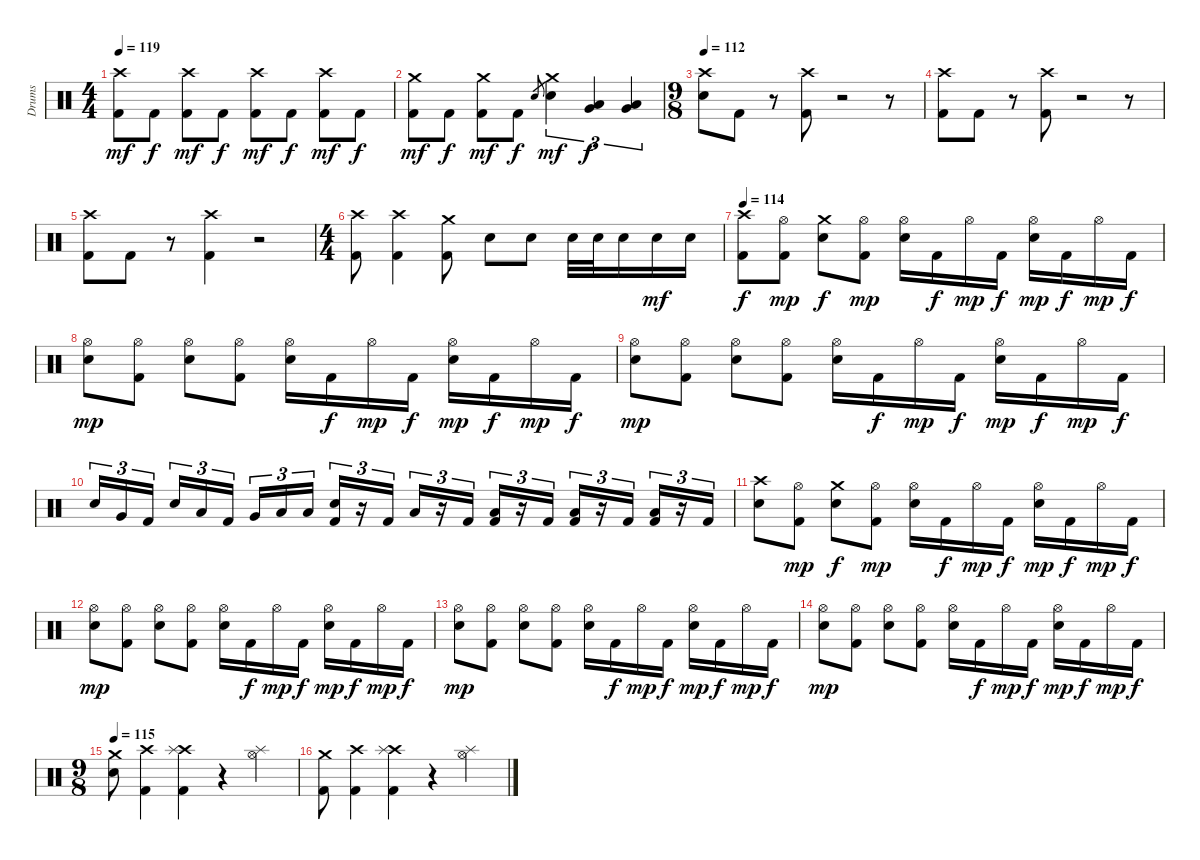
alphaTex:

\track ("Drums" "Drums") {instrument percussion}
\staff {score}
\articulation defaults
\ts (4 4)
\tempo 119
\clef neutral
\ks c
("Crash high (hit)" "Kick (hit) 2").8{dy mf} "Kick (hit) 2".8{dy f} ("Crash high (hit)" "Kick (hit) 2").8{dy mf} "Kick (hit) 2".8{dy f} ("Crash high (hit)" "Kick (hit) 2").8{dy mf} "Kick (hit) 2".8{dy f} ("Crash high (hit)" "Kick (hit) 2").8{dy mf} "Kick (hit) 2".8{dy f} |
("Crash medium (hit)" "Kick (hit) 2").8{dy mf} "Kick (hit) 2".8{dy f} ("Crash medium (hit)" "Kick (hit) 2").8{dy mf} "Kick (hit) 2".8{dy f} "Electric Snare (hit)".8{gr} ("Crash medium (hit)" "Electric Snare (hit)").4{tu (3 2) dy mf} ("Very Low Tom (hit)" "Low Tom (hit)").4{tu (3 2) dy f} ("Low Floor Tom (hit)" "Very Low Tom (hit)").4{tu (3 2)} |
\ts (9 8)
\tempo 112
("Crash high (hit)" "Electric Snare (hit)").8{volume 16} "Kick (hit) 2".8 r.8 ("Crash high (hit)" "Kick (hit) 2").8 r.2 r.8 |
("Crash high (hit)" "Kick (hit) 2").8 "Kick (hit) 2".8 r.8 ("Crash high (hit)" "Kick (hit) 2").8 r.2 r.8 |
("Crash high (hit)" "Kick (hit) 2").8 "Kick (hit) 2".8 r.8 ("Crash high (hit)" "Kick (hit) 2").4 r.2 |
\ts (4 4)
("Crash high (hit)" "Kick (hit) 2").8 ("Crash high (hit)" "Kick (hit) 2").4 ("Crash medium (hit)" "Kick (hit) 2").8 "Electric Snare (hit)".8 "Electric Snare (hit)".8 "Electric Snare (hit)".32 "Electric Snare (hit)".32 "Electric Snare (hit)".16 "Electric Snare (hit)".16{dy mf} "Electric Snare (hit)".16 |
\tempo 114
("Crash high (hit)" "Kick (hit) 2").8{dy f} ("Hi-Hat (open)" "Kick (hit) 2").8{dy mp} ("Crash medium (hit)" "Electric Snare (hit)").8{dy f} ("Hi-Hat (open)" "Kick (hit) 2").8{dy mp} ("Hi-Hat (open)" "Electric Snare (hit)").16 "Kick (hit) 2".16{dy f} "Hi-Hat (open)".16{dy mp} "Kick (hit) 2".16{dy f} ("Hi-Hat (open)" "Electric Snare (hit)").16{dy mp} "Kick (hit) 2".16{dy f} "Hi-Hat (open)".16{dy mp} "Kick (hit) 2".16{dy f} |
("Hi-Hat (open)" "Electric Snare (hit)").8{dy mp} ("Hi-Hat (open)" "Kick (hit) 2").8 ("Hi-Hat (open)" "Electric Snare (hit)").8 ("Hi-Hat (open)" "Kick (hit) 2").8 ("Hi-Hat (open)" "Electric Snare (hit)").16 "Kick (hit) 2".16{dy f} "Hi-Hat (open)".16{dy mp} "Kick (hit) 2".16{dy f} ("Hi-Hat (open)" "Electric Snare (hit)").16{dy mp} "Kick (hit) 2".16{dy f} "Hi-Hat (open)".16{dy mp} "Kick (hit) 2".16{dy f} |
("Hi-Hat (open)" "Electric Snare (hit)").8{dy mp} ("Hi-Hat (open)" "Kick (hit) 2").8 ("Hi-Hat (open)" "Electric Snare (hit)").8 ("Hi-Hat (open)" "Kick (hit) 2").8 ("Hi-Hat (open)" "Electric Snare (hit)").16 "Kick (hit) 2".16{dy f} "Hi-Hat (open)".16{dy mp} "Kick (hit) 2".16{dy f} ("Hi-Hat (open)" "Electric Snare (hit)").16{dy mp} "Kick (hit) 2".16{dy f} "Hi-Hat (open)".16{dy mp} "Kick (hit) 2".16{dy f} |
"Electric Snare (hit)".16{tu (3 2)} "Very Low Tom (hit)".16{tu (3 2)} "Kick (hit) 2".16{tu (3 2)} "Electric Snare (hit)".16{tu (3 2)} "Low Floor Tom (hit)".16{tu (3 2)} "Kick (hit) 2".16{tu (3 2)} "Very Low Tom (hit)".16{tu (3 2)} "Low Floor Tom (hit)".16{tu (3 2)} "Low Floor Tom (hit)".16{tu (3 2)} ("Electric Snare (hit)" "Kick (hit) 2").16{tu (3 2)} r.16{tu (3 2)} "Kick (hit) 2".16{tu (3 2)} "Low Floor Tom (hit)".16{tu (3 2)} r.16{tu (3 2)} "Kick (hit) 2".16{tu (3 2)} ("Low Floor Tom (hit)" "Kick (hit) 2").16{tu (3 2)} r.16{tu (3 2)} "Kick (hit) 2".16{tu (3 2)} ("Low Floor Tom (hit)" "Kick (hit) 2").16{tu (3 2)} r.16{tu (3 2)} "Kick (hit) 2".16{tu (3 2)} ("Low Floor Tom (hit)" "Kick (hit) 2").16{tu (3 2)} r.16{tu (3 2)} "Kick (hit) 2".16{tu (3 2)} |
("Crash high (hit)" "Electric Snare (hit)").8 ("Hi-Hat (open)" "Kick (hit) 2").8{dy mp} ("Crash medium (hit)" "Electric Snare (hit)").8{dy f} ("Hi-Hat (open)" "Kick (hit) 2").8{dy mp} ("Hi-Hat (open)" "Electric Snare (hit)").16 "Kick (hit) 2".16{dy f} "Hi-Hat (open)".16{dy mp} "Kick (hit) 2".16{dy f} ("Hi-Hat (open)" "Electric Snare (hit)").16{dy mp} "Kick (hit) 2".16{dy f} "Hi-Hat (open)".16{dy mp} "Kick (hit) 2".16{dy f} |
("Hi-Hat (open)" "Electric Snare (hit)").8{dy mp} ("Hi-Hat (open)" "Kick (hit) 2").8 ("Hi-Hat (open)" "Electric Snare (hit)").8 ("Hi-Hat (open)" "Kick (hit) 2").8 ("Hi-Hat (open)" "Electric Snare (hit)").16 "Kick (hit) 2".16{dy f} "Hi-Hat (open)".16{dy mp} "Kick (hit) 2".16{dy f} ("Hi-Hat (open)" "Electric Snare (hit)").16{dy mp} "Kick (hit) 2".16{dy f} "Hi-Hat (open)".16{dy mp} "Kick (hit) 2".16{dy f} |
("Hi-Hat (open)" "Electric Snare (hit)").8{dy mp} ("Hi-Hat (open)" "Kick (hit) 2").8 ("Hi-Hat (open)" "Electric Snare (hit)").8 ("Hi-Hat (open)" "Kick (hit) 2").8 ("Hi-Hat (open)" "Electric Snare (hit)").16 "Kick (hit) 2".16{dy f} "Hi-Hat (open)".16{dy mp} "Kick (hit) 2".16{dy f} ("Hi-Hat (open)" "Electric Snare (hit)").16{dy mp} "Kick (hit) 2".16{dy f} "Hi-Hat (open)".16{dy mp} "Kick (hit) 2".16{dy f} |
("Hi-Hat (open)" "Electric Snare (hit)").8{dy mp} ("Hi-Hat (open)" "Kick (hit) 2").8 ("Hi-Hat (open)" "Electric Snare (hit)").8 ("Hi-Hat (open)" "Kick (hit) 2").8 ("Hi-Hat (open)" "Electric Snare (hit)").16 "Kick (hit) 2".16{dy f} "Hi-Hat (open)".16{dy mp} "Kick (hit) 2".16{dy f} ("Hi-Hat (open)" "Electric Snare (hit)").16{dy mp} "Kick (hit) 2".16{dy f} "Hi-Hat (open)".16{dy mp} "Kick (hit) 2".16{dy f} |
\ts (9 8)
\tempo 115
("Crash medium (hit)" "Electric Snare (hit)").8 ("Crash high (hit)" "Kick (hit) 2").4 ("Crash high (hit)" "Splash (hit)" "Kick (hit) 2").4 r.4 ("Hi-Hat (open)" "Splash (hit)").4 |
("Crash medium (hit)" "Kick (hit) 2").8 ("Crash high (hit)" "Kick (hit) 2").4 ("Crash high (hit)" "Splash (hit)" "Kick (hit) 2").4 r.4 ("Hi-Hat (open)" "Splash (hit)").4
